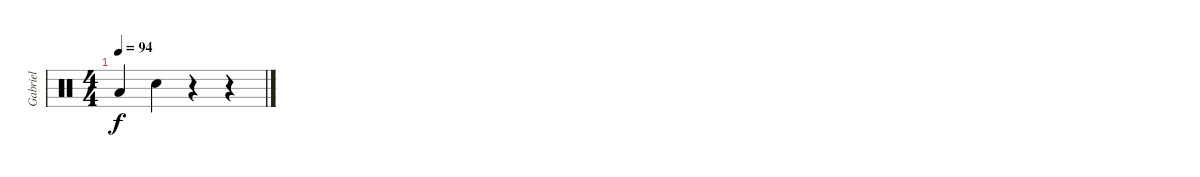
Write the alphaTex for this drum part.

\track ("Gabriel" "Gabriel") {instrument percussion}
\staff {score}
\articulation defaults
\ts (4 4)
\tempo 94
\clef neutral
\ks c "Low Tom (hit)".4{dy f} "Electric Snare (hit)".4
r.4 r.4
